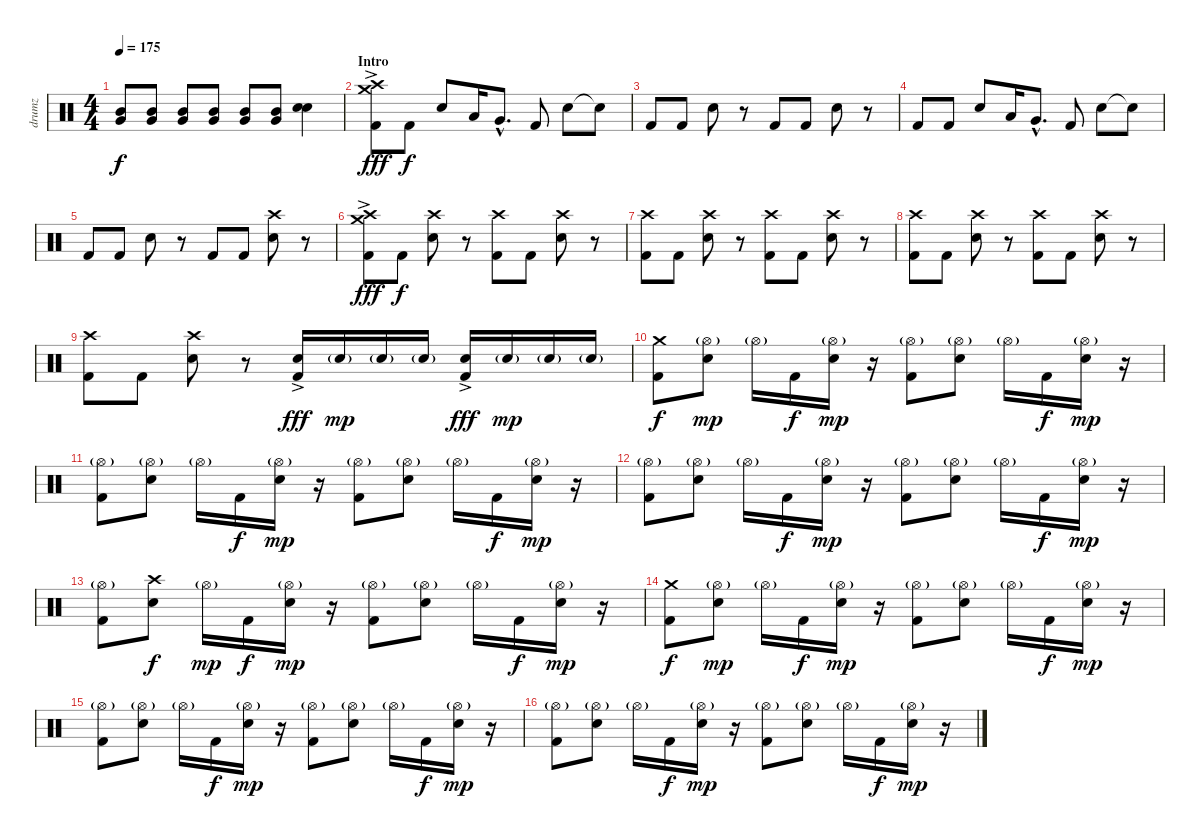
\track ("drumz" "drumz") {instrument percussion}
\staff {score}
\articulation defaults
\ts (4 4)
\tempo 175
\clef neutral
\ks c
("Mid Tom (hit)" "Very Low Tom (hit)").8{dy f} ("Mid Tom (hit)" "Very Low Tom (hit)").8 ("Mid Tom (hit)" "Very Low Tom (hit)").8 ("Mid Tom (hit)" "Very Low Tom (hit)").8 ("Mid Tom (hit)" "Very Low Tom (hit)").8 ("Mid Tom (hit)" "Very Low Tom (hit)").8 ("Electric Snare (hit)" "Electric Snare (hit)").4 |
\section ("" "Intro")
("Crash medium (hit)" "Crash high (hit)"{ac} "Kick (hit) 2").8{dy fff} "Kick (hit) 2".8{dy f} "Electric Snare (hit)".8 "Low Tom (hit)".16 "Very Low Tom (hit)"{hac}.8{d} "Kick (hit) 2".8 "Electric Snare (hit)".8 "Snare (hit)"{t}.8 |
"Kick (hit) 2".8 "Kick (hit) 2".8 "Electric Snare (hit)".8 r.8 "Kick (hit) 2".8 "Kick (hit) 2".8 "Electric Snare (hit)".8 r.8 |
"Kick (hit) 2".8 "Kick (hit) 2".8 "Electric Snare (hit)".8 "Low Tom (hit)".16 "Very Low Tom (hit)"{hac}.8{d} "Kick (hit) 2".8 "Electric Snare (hit)".8 "Snare (hit)"{t}.8 |
"Kick (hit) 2".8 "Kick (hit) 2".8 "Electric Snare (hit)".8 r.8 "Kick (hit) 2".8 "Kick (hit) 2".8 ("Crash high (hit)" "Electric Snare (hit)").8 r.8 |
\section ("" "")
("Crash medium (hit)" "Crash high (hit)"{ac} "Kick (hit) 2").8{dy fff} "Kick (hit) 2".8{dy f} ("Crash high (hit)" "Electric Snare (hit)").8 r.8 ("Crash high (hit)" "Kick (hit) 2").8 "Kick (hit) 2".8 ("Crash high (hit)" "Electric Snare (hit)").8 r.8 |
("Crash high (hit)" "Kick (hit) 2").8 "Kick (hit) 2".8 ("Crash high (hit)" "Electric Snare (hit)").8 r.8 ("Crash high (hit)" "Kick (hit) 2").8 "Kick (hit) 2".8 ("Crash high (hit)" "Electric Snare (hit)").8 r.8 |
("Crash high (hit)" "Kick (hit) 2").8 "Kick (hit) 2".8 ("Crash high (hit)" "Electric Snare (hit)").8 r.8 ("Crash high (hit)" "Kick (hit) 2").8 "Kick (hit) 2".8 ("Crash high (hit)" "Electric Snare (hit)").8 r.8 |
("Crash high (hit)" "Kick (hit) 2").8 "Kick (hit) 2".8 ("Crash high (hit)" "Electric Snare (hit)").8 r.8 ("Electric Snare (hit)"{ac} "Kick (hit) 2").16{dy fff} "Electric Snare (hit)"{g}.16{dy mp} "Electric Snare (hit)"{g}.16 "Electric Snare (hit)"{g}.16 ("Electric Snare (hit)"{ac} "Kick (hit) 2").16{dy fff} "Electric Snare (hit)"{g}.16{dy mp} "Electric Snare (hit)"{g}.16 "Electric Snare (hit)"{g}.16 |
\section ("" "")
("Crash medium (hit)" "Kick (hit) 2").8{dy f} ("Hi-Hat (open)"{g} "Electric Snare (hit)").8{dy mp} "Hi-Hat (open)"{g}.16 "Kick (hit) 2".16{dy f} ("Hi-Hat (open)"{g} "Electric Snare (hit)").16{dy mp} r.16 ("Hi-Hat (open)"{g} "Kick (hit) 2").8 ("Hi-Hat (open)"{g} "Electric Snare (hit)").8 "Hi-Hat (open)"{g}.16 "Kick (hit) 2".16{dy f} ("Hi-Hat (open)"{g} "Electric Snare (hit)").16{dy mp} r.16 |
("Hi-Hat (open)"{g} "Kick (hit) 2").8 ("Hi-Hat (open)"{g} "Electric Snare (hit)").8 "Hi-Hat (open)"{g}.16 "Kick (hit) 2".16{dy f} ("Hi-Hat (open)"{g} "Electric Snare (hit)").16{dy mp} r.16 ("Hi-Hat (open)"{g} "Kick (hit) 2").8 ("Hi-Hat (open)"{g} "Electric Snare (hit)").8 "Hi-Hat (open)"{g}.16 "Kick (hit) 2".16{dy f} ("Hi-Hat (open)"{g} "Electric Snare (hit)").16{dy mp} r.16 |
("Hi-Hat (open)"{g} "Kick (hit) 2").8 ("Hi-Hat (open)"{g} "Electric Snare (hit)").8 "Hi-Hat (open)"{g}.16 "Kick (hit) 2".16{dy f} ("Hi-Hat (open)"{g} "Electric Snare (hit)").16{dy mp} r.16 ("Hi-Hat (open)"{g} "Kick (hit) 2").8 ("Hi-Hat (open)"{g} "Electric Snare (hit)").8 "Hi-Hat (open)"{g}.16 "Kick (hit) 2".16{dy f} ("Hi-Hat (open)"{g} "Electric Snare (hit)").16{dy mp} r.16 |
("Hi-Hat (open)"{g} "Kick (hit) 2").8 ("Crash high (hit)" "Electric Snare (hit)").8{dy f} "Hi-Hat (open)"{g}.16{dy mp} "Kick (hit) 2".16{dy f} ("Hi-Hat (open)"{g} "Electric Snare (hit)").16{dy mp} r.16 ("Hi-Hat (open)"{g} "Kick (hit) 2").8 ("Hi-Hat (open)"{g} "Electric Snare (hit)").8 "Hi-Hat (open)"{g}.16 "Kick (hit) 2".16{dy f} ("Hi-Hat (open)"{g} "Electric Snare (hit)").16{dy mp} r.16 |
("Crash medium (hit)" "Kick (hit) 2").8{dy f} ("Hi-Hat (open)"{g} "Electric Snare (hit)").8{dy mp} "Hi-Hat (open)"{g}.16 "Kick (hit) 2".16{dy f} ("Hi-Hat (open)"{g} "Electric Snare (hit)").16{dy mp} r.16 ("Hi-Hat (open)"{g} "Kick (hit) 2").8 ("Hi-Hat (open)"{g} "Electric Snare (hit)").8 "Hi-Hat (open)"{g}.16 "Kick (hit) 2".16{dy f} ("Hi-Hat (open)"{g} "Electric Snare (hit)").16{dy mp} r.16 |
("Hi-Hat (open)"{g} "Kick (hit) 2").8 ("Hi-Hat (open)"{g} "Electric Snare (hit)").8 "Hi-Hat (open)"{g}.16 "Kick (hit) 2".16{dy f} ("Hi-Hat (open)"{g} "Electric Snare (hit)").16{dy mp} r.16 ("Hi-Hat (open)"{g} "Kick (hit) 2").8 ("Hi-Hat (open)"{g} "Electric Snare (hit)").8 "Hi-Hat (open)"{g}.16 "Kick (hit) 2".16{dy f} ("Hi-Hat (open)"{g} "Electric Snare (hit)").16{dy mp} r.16 |
("Hi-Hat (open)"{g} "Kick (hit) 2").8 ("Hi-Hat (open)"{g} "Electric Snare (hit)").8 "Hi-Hat (open)"{g}.16 "Kick (hit) 2".16{dy f} ("Hi-Hat (open)"{g} "Electric Snare (hit)").16{dy mp} r.16 ("Hi-Hat (open)"{g} "Kick (hit) 2").8 ("Hi-Hat (open)"{g} "Electric Snare (hit)").8 "Hi-Hat (open)"{g}.16 "Kick (hit) 2".16{dy f} ("Hi-Hat (open)"{g} "Electric Snare (hit)").16{dy mp} r.16
